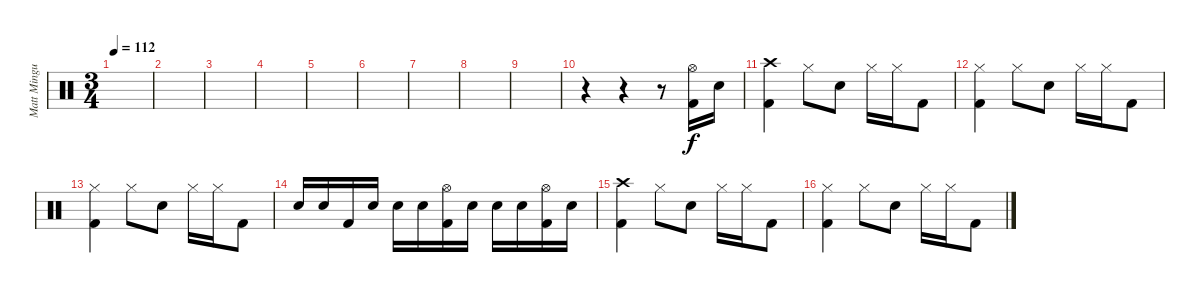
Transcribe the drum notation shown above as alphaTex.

\track ("Matt Mingus" "Matt Mingu") {instrument percussion}
\staff {score}
\articulation defaults
\ts (3 4)
\tempo 112
\clef neutral
\ks c
|
|
|
|
|
|
|
|
|
r.4 r.4 r.8 ("Hi-Hat (open)" "Kick (hit) 2").16 "Electric Snare (hit)".16 |
("Crash high (hit)" "Kick (hit) 2").4 "Hi-Hat (closed)".8 "Electric Snare (hit)".8 "Hi-Hat (closed)".16 "Hi-Hat (closed)".16 "Kick (hit) 2".8 |
("Hi-Hat (closed)" "Kick (hit) 2").4 "Hi-Hat (closed)".8 "Electric Snare (hit)".8 "Hi-Hat (closed)".16 "Hi-Hat (closed)".16 "Kick (hit) 2".8 |
("Hi-Hat (closed)" "Kick (hit) 2").4 "Hi-Hat (closed)".8 "Electric Snare (hit)".8 "Hi-Hat (closed)".16 "Hi-Hat (closed)".16 "Kick (hit) 2".8 |
"Electric Snare (hit)".16 "Electric Snare (hit)".16 "Kick (hit) 2".16 "Electric Snare (hit)".16 "Electric Snare (hit)".16 "Electric Snare (hit)".16 ("Hi-Hat (open)" "Kick (hit) 2").16 "Electric Snare (hit)".16 "Electric Snare (hit)".16 "Electric Snare (hit)".16 ("Hi-Hat (open)" "Kick (hit) 2").16 "Electric Snare (hit)".16 |
("Crash high (hit)" "Kick (hit) 2").4 "Hi-Hat (closed)".8 "Electric Snare (hit)".8 "Hi-Hat (closed)".16 "Hi-Hat (closed)".16 "Kick (hit) 2".8 |
("Hi-Hat (closed)" "Kick (hit) 2").4 "Hi-Hat (closed)".8 "Electric Snare (hit)".8 "Hi-Hat (closed)".16 "Hi-Hat (closed)".16 "Kick (hit) 2".8
